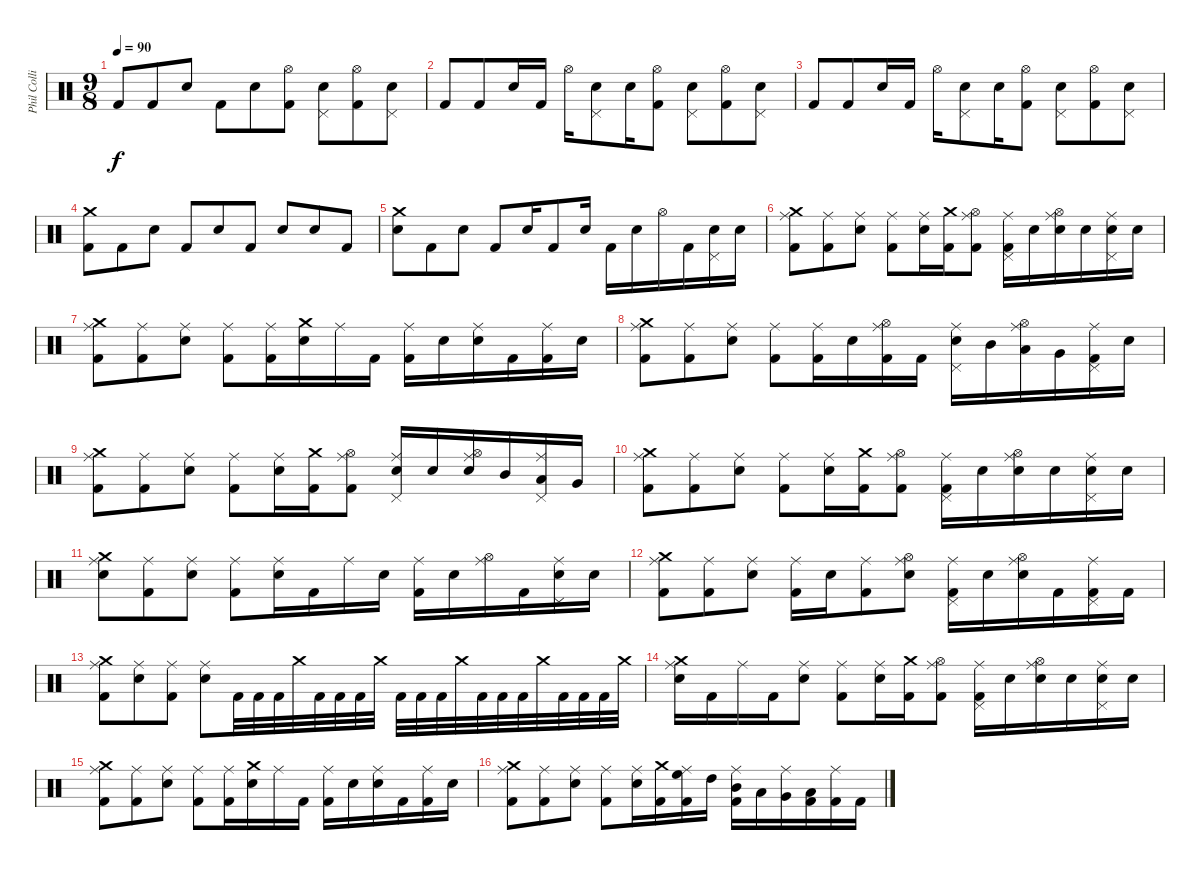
\track ("Phil Collins (drums)" "Phil Colli") {instrument percussion}
\staff {score}
\articulation defaults
\ts (9 8)
\tempo 90
\clef neutral
\ks c "Kick (hit) 2".8{dy f} "Kick (hit) 2".8 "Electric Snare (hit)".8 "Kick (hit) 2".8 "Electric Snare (hit)".8
("Hi-Hat (open)" "Kick (hit) 2").8 ("Pedal Hi-Hat (hit)" "Electric Snare (hit)").8 ("Hi-Hat (open)" "Kick (hit) 2").8 ("Pedal Hi-Hat (hit)" "Electric Snare (hit)").8 |
"Kick (hit) 2".8 "Kick (hit) 2".8 "Electric Snare (hit)".16 "Kick (hit) 2".16 "Hi-Hat (open)".16 ("Pedal Hi-Hat (hit)" "Electric Snare (hit)").8 "Electric Snare (hit)".16 ("Hi-Hat (open)" "Kick (hit) 2").8 ("Pedal Hi-Hat (hit)" "Electric Snare (hit)").8 ("Hi-Hat (open)" "Kick (hit) 2").8 ("Pedal Hi-Hat (hit)" "Electric Snare (hit)").8 |
"Kick (hit) 2".8 "Kick (hit) 2".8 "Electric Snare (hit)".16 "Kick (hit) 2".16 "Hi-Hat (open)".16 ("Pedal Hi-Hat (hit)" "Electric Snare (hit)").8 "Electric Snare (hit)".16 ("Hi-Hat (open)" "Kick (hit) 2").8 ("Pedal Hi-Hat (hit)" "Electric Snare (hit)").8 ("Hi-Hat (open)" "Kick (hit) 2").8 ("Pedal Hi-Hat (hit)" "Electric Snare (hit)").8 |
("Crash medium (hit)" "Kick (hit) 2").8 "Kick (hit) 2".8 "Electric Snare (hit)".8 "Kick (hit) 2".8 "Electric Snare (hit)".8 "Kick (hit) 2".8 "Electric Snare (hit)".8 "Electric Snare (hit)".8 "Kick (hit) 2".8 |
("Crash medium (hit)" "Electric Snare (hit)").8 "Kick (hit) 2".8 "Electric Snare (hit)".8 "Kick (hit) 2".8 "Electric Snare (hit)".16 "Kick (hit) 2".8 "Electric Snare (hit)".16 "Kick (hit) 2".16 "Electric Snare (hit)".16 "Hi-Hat (open)".16 "Kick (hit) 2".16 ("Pedal Hi-Hat (hit)" "Electric Snare (hit)").16 "Electric Snare (hit)".16 |
("Ride (middle)" "Crash medium (hit)" "Kick (hit) 2").8 ("Ride (middle)" "Kick (hit) 2").8 ("Ride (middle)" "Electric Snare (hit)").8 ("Ride (middle)" "Kick (hit) 2").8 ("Ride (middle)" "Electric Snare (hit)").16 ("Crash medium (hit)" "Kick (hit) 2").16 ("Ride (middle)" "Hi-Hat (open)" "Kick (hit) 2").8 ("Ride (middle)" "Pedal Hi-Hat (hit)" "Kick (hit) 2").16 "Electric Snare (hit)".16 ("Ride (middle)" "Hi-Hat (open)" "Electric Snare (hit)").16 "Electric Snare (hit)".16 ("Ride (middle)" "Pedal Hi-Hat (hit)" "Electric Snare (hit)").16 "Electric Snare (hit)".16 |
("Ride (middle)" "Crash medium (hit)" "Kick (hit) 2").8 ("Ride (middle)" "Kick (hit) 2").8 ("Ride (middle)" "Electric Snare (hit)").8 ("Ride (middle)" "Kick (hit) 2").8 ("Ride (middle)" "Kick (hit) 2").16 ("Crash medium (hit)" "Electric Snare (hit)").16 "Ride (middle)".16 "Kick (hit) 2".16 ("Ride (middle)" "Kick (hit) 2").16 "Electric Snare (hit)".16 ("Ride (middle)" "Electric Snare (hit)").16 "Kick (hit) 2".16 ("Ride (middle)" "Kick (hit) 2").16 "Electric Snare (hit)".16 |
("Ride (middle)" "Crash medium (hit)" "Kick (hit) 2").8 ("Ride (middle)" "Kick (hit) 2").8 ("Ride (middle)" "Electric Snare (hit)").8 ("Ride (middle)" "Kick (hit) 2").8 ("Ride (middle)" "Kick (hit) 2").16 "Electric Snare (hit)".16 ("Ride (middle)" "Hi-Hat (open)" "Kick (hit) 2").16 "Kick (hit) 2".16 ("Ride (middle)" "Pedal Hi-Hat (hit)" "Electric Snare (hit)").16 "Mid Tom (hit)".16 ("Ride (middle)" "Hi-Hat (open)" "Low Tom (hit)").16 "Very Low Tom (hit)".16 ("Ride (middle)" "Pedal Hi-Hat (hit)" "Kick (hit) 2").16 "Electric Snare (hit)".16 |
("Ride (middle)" "Crash medium (hit)" "Kick (hit) 2").8 ("Ride (middle)" "Kick (hit) 2").8 ("Ride (middle)" "Electric Snare (hit)").8 ("Ride (middle)" "Kick (hit) 2").8 ("Ride (middle)" "Electric Snare (hit)").16 ("Crash medium (hit)" "Kick (hit) 2").16 ("Ride (middle)" "Hi-Hat (open)" "Kick (hit) 2").8 ("Ride (middle)" "Pedal Hi-Hat (hit)" "Electric Snare (hit)").16 "Electric Snare (hit)".16 ("Ride (middle)" "Hi-Hat (open)" "Electric Snare (hit)").16 "Mid Tom (hit)".16 ("Ride (middle)" "Pedal Hi-Hat (hit)" "Low Tom (hit)").16 "Very Low Tom (hit)".16 |
("Ride (middle)" "Crash medium (hit)" "Kick (hit) 2").8 ("Ride (middle)" "Kick (hit) 2").8 ("Ride (middle)" "Electric Snare (hit)").8 ("Ride (middle)" "Kick (hit) 2").8 ("Ride (middle)" "Electric Snare (hit)").16 ("Crash medium (hit)" "Kick (hit) 2").16 ("Ride (middle)" "Hi-Hat (open)" "Kick (hit) 2").8 ("Ride (middle)" "Pedal Hi-Hat (hit)" "Kick (hit) 2").16 "Electric Snare (hit)".16 ("Ride (middle)" "Hi-Hat (open)" "Electric Snare (hit)").16 "Electric Snare (hit)".16 ("Ride (middle)" "Pedal Hi-Hat (hit)" "Electric Snare (hit)").16 "Electric Snare (hit)".16 |
("Ride (middle)" "Crash medium (hit)" "Electric Snare (hit)").8 ("Ride (middle)" "Kick (hit) 2").8 ("Ride (middle)" "Electric Snare (hit)").8 ("Ride (middle)" "Kick (hit) 2").8 ("Ride (middle)" "Electric Snare (hit)").16 "Kick (hit) 2".16 "Ride (middle)".16 "Electric Snare (hit)".16 ("Ride (middle)" "Kick (hit) 2").16 "Electric Snare (hit)".16 ("Ride (middle)" "Hi-Hat (open)").16 "Kick (hit) 2".16 ("Ride (middle)" "Pedal Hi-Hat (hit)" "Electric Snare (hit)").16 "Electric Snare (hit)".16 |
("Ride (middle)" "Crash medium (hit)" "Kick (hit) 2").8 ("Ride (middle)" "Kick (hit) 2").8 ("Ride (middle)" "Electric Snare (hit)").8 ("Ride (middle)" "Kick (hit) 2").16 "Electric Snare (hit)".16 ("Ride (middle)" "Kick (hit) 2").8 ("Ride (middle)" "Hi-Hat (open)" "Electric Snare (hit)").8 ("Ride (middle)" "Pedal Hi-Hat (hit)" "Kick (hit) 2").16 "Electric Snare (hit)".16 ("Ride (middle)" "Hi-Hat (open)" "Electric Snare (hit)").16 "Kick (hit) 2".16 ("Ride (middle)" "Pedal Hi-Hat (hit)" "Kick (hit) 2").16 "Kick (hit) 2".16 |
("Ride (middle)" "Crash medium (hit)" "Kick (hit) 2").8 ("Ride (middle)" "Electric Snare (hit)").8 ("Ride (middle)" "Kick (hit) 2").8 ("Ride (middle)" "Electric Snare (hit)").8 "Kick (hit) 2".32 "Kick (hit) 2".32 "Kick (hit) 2".32 "Crash medium (hit)".32 "Kick (hit) 2".32 "Kick (hit) 2".32 "Kick (hit) 2".32 "Crash medium (hit)".32 "Kick (hit) 2".32 "Kick (hit) 2".32 "Kick (hit) 2".32 "Crash medium (hit)".32 "Kick (hit) 2".32 "Kick (hit) 2".32 "Kick (hit) 2".32 "Crash medium (hit)".32 "Kick (hit) 2".32 "Kick (hit) 2".32 "Kick (hit) 2".32 "Crash medium (hit)".32 |
("Ride (middle)" "Crash medium (hit)" "Electric Snare (hit)").16 "Kick (hit) 2".16 "Ride (middle)".16 "Kick (hit) 2".16 ("Ride (middle)" "Electric Snare (hit)").8 ("Ride (middle)" "Kick (hit) 2").8 ("Ride (middle)" "Electric Snare (hit)").16 ("Crash medium (hit)" "Kick (hit) 2").16 ("Ride (middle)" "Hi-Hat (open)" "Kick (hit) 2").8 ("Ride (middle)" "Pedal Hi-Hat (hit)" "Kick (hit) 2").16 "Electric Snare (hit)".16 ("Ride (middle)" "Hi-Hat (open)" "Electric Snare (hit)").16 "Electric Snare (hit)".16 ("Ride (middle)" "Pedal Hi-Hat (hit)" "Electric Snare (hit)").16 "Electric Snare (hit)".16 |
("Ride (middle)" "Crash medium (hit)" "Kick (hit) 2").8 ("Ride (middle)" "Kick (hit) 2").8 ("Ride (middle)" "Electric Snare (hit)").8 ("Ride (middle)" "Kick (hit) 2").8 ("Ride (middle)" "Kick (hit) 2").16 ("Crash medium (hit)" "Electric Snare (hit)").16 "Ride (middle)".16 "Kick (hit) 2".16 ("Ride (middle)" "Kick (hit) 2").16 "Electric Snare (hit)".16 ("Ride (middle)" "Electric Snare (hit)").16 "Kick (hit) 2".16 ("Ride (middle)" "Kick (hit) 2").16 "Electric Snare (hit)".16 |
("Ride (middle)" "Crash medium (hit)" "Kick (hit) 2").8 ("Ride (middle)" "Kick (hit) 2").8 ("Ride (middle)" "Electric Snare (hit)").8 ("Ride (middle)" "Kick (hit) 2").8 ("Ride (middle)" "Electric Snare (hit)").16 ("Crash medium (hit)" "Kick (hit) 2").16 ("Ride (middle)" "High Floor Tom (hit)" "Kick (hit) 2").16 "High Tom (hit)".16 ("Ride (middle)" "Mid Tom (hit)" "Kick (hit) 2").16 "Low Tom (hit)".16 ("Ride (middle)" "Very Low Tom (hit)").16 ("Low Floor Tom (hit)" "Kick (hit) 2").16 ("Ride (middle)" "Kick (hit) 2").16 "Kick (hit) 2".16
